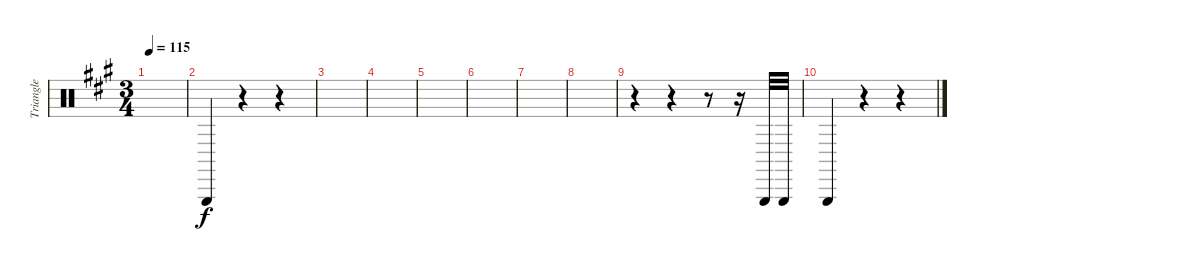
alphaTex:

\track ("Triangle" "Triangle") {instrument percussion}
\staff {score}
\articulation defaults
\ts (3 4)
\tempo 115
\clef neutral
\ks a
|
"Triangle (hit)".4 r.4 r.4 |
|
|
|
|
|
|
r.4 r.4 r.8 r.16 "Triangle (hit)".32 "Triangle (hit)".32 |
"Triangle (hit)".4 r.4 r.4
